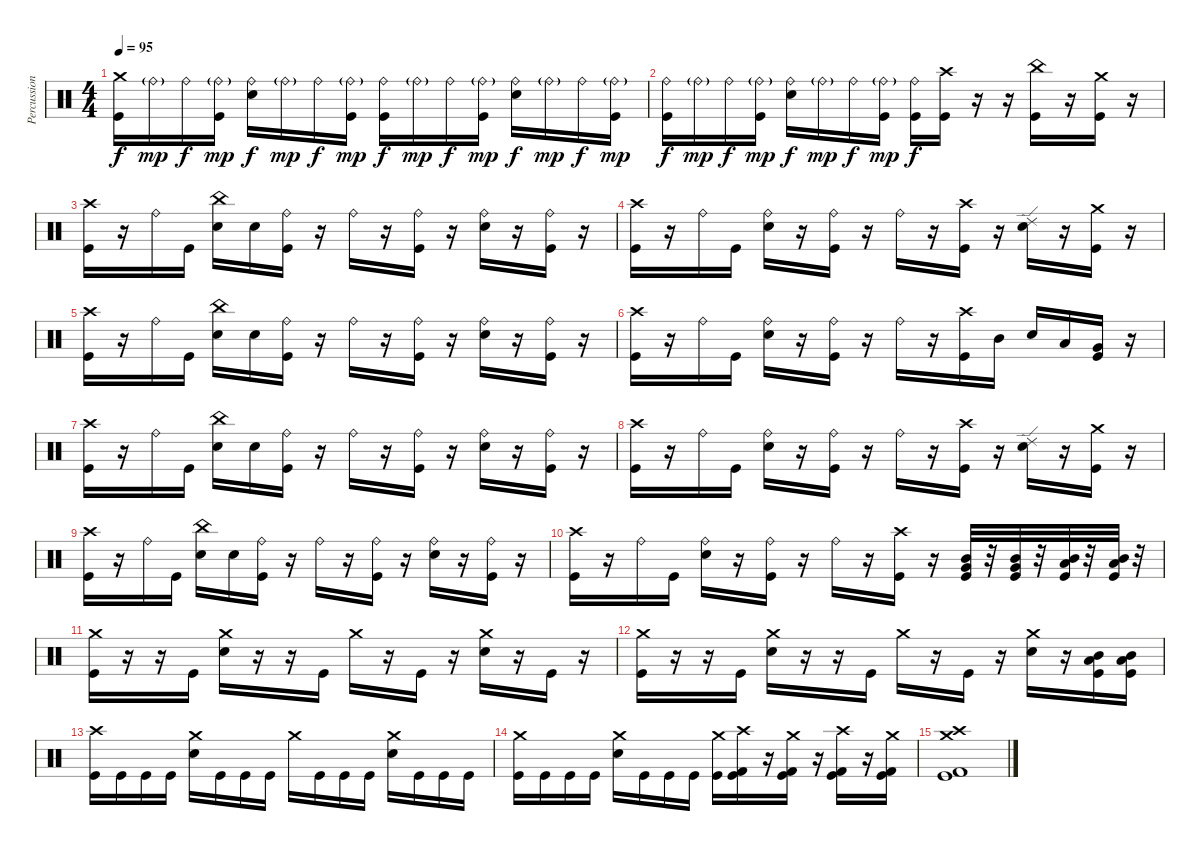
\track ("Percussion" "Percussion") {instrument percussion}
\staff {score}
\articulation defaults
\ts (4 4)
\tempo 95
\clef neutral
\ks c
("Crash medium (hit)" "Kick (hit)").16{dy f} "Ride (bell)"{g}.16{dy mp} "Ride (bell)".16{dy f} ("Ride (bell)"{g} "Kick (hit)").16{dy mp} ("Ride (bell)" "Snare (hit) 2").16{dy f} "Ride (bell)"{g}.16{dy mp} "Ride (bell)".16{dy f} ("Ride (bell)"{g} "Kick (hit)").16{dy mp} ("Ride (bell)" "Kick (hit)").16{dy f} "Ride (bell)"{g}.16{dy mp} "Ride (bell)".16{dy f} ("Ride (bell)"{g} "Kick (hit)").16{dy mp} ("Ride (bell)" "Snare (hit) 2").16{dy f} "Ride (bell)"{g}.16{dy mp} "Ride (bell)".16{dy f} ("Ride (bell)"{g} "Kick (hit)").16{dy mp} |
("Ride (bell)" "Kick (hit)").16{dy f} "Ride (bell)"{g}.16{dy mp} "Ride (bell)".16{dy f} ("Ride (bell)"{g} "Kick (hit)").16{dy mp} ("Ride (bell)" "Snare (hit) 2").16{dy f} "Ride (bell)"{g}.16{dy mp} "Ride (bell)".16{dy f} ("Ride (bell)"{g} "Kick (hit)").16{dy mp} ("Ride (bell)" "Kick (hit)").16{dy f} ("Crash high (hit)" "Kick (hit)").16 r.16 r.16 ("China (hit)" "Kick (hit)").16 r.16 ("Crash medium (hit)" "Kick (hit)").16 r.16 |
("Crash high (hit)" "Kick (hit)").16 r.16 "Ride (bell)".16 "Kick (hit)".16 ("China (hit)" "Snare (hit) 2").16 "Snare (hit) 2".16 ("Ride (bell)" "Kick (hit)").16 r.16 "Ride (bell)".16 r.16 ("Ride (bell)" "Kick (hit)").16 r.16 ("Ride (bell)" "Snare (hit) 2").16 r.16 ("Ride (bell)" "Kick (hit)").16 r.16 |
("Crash high (hit)" "Kick (hit)").16 r.16 "Ride (bell)".16 "Kick (hit)".16 ("Ride (bell)" "Snare (hit) 2").16 r.16 ("Ride (bell)" "Kick (hit)").16 r.16 "Ride (bell)".16 r.16 ("Crash high (hit)" "Kick (hit)").16 r.16 ("Ride (edge) 2" "Snare (hit) 2").16 r.16 ("Crash medium (hit)" "Kick (hit)").16 r.16 |
("Crash high (hit)" "Kick (hit)").16 r.16 "Ride (bell)".16 "Kick (hit)".16 ("China (hit)" "Snare (hit) 2").16 "Snare (hit) 2".16 ("Ride (bell)" "Kick (hit)").16 r.16 "Ride (bell)".16 r.16 ("Ride (bell)" "Kick (hit)").16 r.16 ("Ride (bell)" "Snare (hit) 2").16 r.16 ("Ride (bell)" "Kick (hit)").16 r.16 |
("Crash high (hit)" "Kick (hit)").16 r.16 "Ride (bell)".16 "Kick (hit)".16 ("Ride (bell)" "Snare (hit) 2").16 r.16 ("Ride (bell)" "Kick (hit)").16 r.16 "Ride (bell)".16 r.16 ("Crash high (hit)" "Kick (hit)").16 "Mid Tom (hit)".16 "Snare (hit) 2".16 "Low Tom (hit)".16 ("Very Low Tom (hit)" "Kick (hit)").16 r.16 |
("Crash high (hit)" "Kick (hit)").16 r.16 "Ride (bell)".16 "Kick (hit)".16 ("China (hit)" "Snare (hit) 2").16 "Snare (hit) 2".16 ("Ride (bell)" "Kick (hit)").16 r.16 "Ride (bell)".16 r.16 ("Ride (bell)" "Kick (hit)").16 r.16 ("Ride (bell)" "Snare (hit) 2").16 r.16 ("Ride (bell)" "Kick (hit)").16 r.16 |
("Crash high (hit)" "Kick (hit)").16 r.16 "Ride (bell)".16 "Kick (hit)".16 ("Ride (bell)" "Snare (hit) 2").16 r.16 ("Ride (bell)" "Kick (hit)").16 r.16 "Ride (bell)".16 r.16 ("Crash high (hit)" "Kick (hit)").16 r.16 ("Ride (edge) 2" "Snare (hit) 2").16 r.16 ("Crash medium (hit)" "Kick (hit)").16 r.16 |
("Crash high (hit)" "Kick (hit)").16 r.16 "Ride (bell)".16 "Kick (hit)".16 ("China (hit)" "Snare (hit) 2").16 "Snare (hit) 2".16 ("Ride (bell)" "Kick (hit)").16 r.16 "Ride (bell)".16 r.16 ("Ride (bell)" "Kick (hit)").16 r.16 ("Ride (bell)" "Snare (hit) 2").16 r.16 ("Ride (bell)" "Kick (hit)").16 r.16 |
("Crash high (hit)" "Kick (hit)").16 r.16 "Ride (bell)".16 "Kick (hit)".16 ("Ride (bell)" "Snare (hit) 2").16 r.16 ("Ride (bell)" "Kick (hit)").16 r.16 "Ride (bell)".16 r.16 ("Crash high (hit)" "Kick (hit)").16 r.16 ("Very Low Tom (hit)" "Mid Tom (hit)" "Kick (hit)").32 r.32 ("Very Low Tom (hit)" "Mid Tom (hit)" "Kick (hit)").32 r.32 ("Mid Tom (hit)" "Low Tom (hit)" "Kick (hit)").32 r.32 ("Mid Tom (hit)" "Low Tom (hit)" "Kick (hit)").32 r.32 |
("Crash medium (hit)" "Kick (hit)").16 r.16 r.16 "Kick (hit)".16 ("Crash medium (hit)" "Snare (hit) 2").16 r.16 r.16 "Kick (hit)".16 "Crash medium (hit)".16 r.16 "Kick (hit)".16 r.16 ("Crash medium (hit)" "Snare (hit) 2").16 r.16 "Kick (hit)".16 r.16 |
("Crash medium (hit)" "Kick (hit)").16 r.16 r.16 "Kick (hit)".16 ("Crash medium (hit)" "Snare (hit) 2").16 r.16 r.16 "Kick (hit)".16 "Crash medium (hit)".16 r.16 "Kick (hit)".16 r.16 ("Crash medium (hit)" "Snare (hit) 2").16 r.16 ("Mid Tom (hit)" "Low Tom (hit)" "Kick (hit)").16 ("Mid Tom (hit)" "Low Tom (hit)" "Kick (hit)").16 |
("Crash high (hit)" "Kick (hit)").16 "Kick (hit)".16 "Kick (hit)".16 "Kick (hit)".16 ("Crash medium (hit)" "Snare (hit) 2").16 "Kick (hit)".16 "Kick (hit)".16 "Kick (hit)".16 "Crash medium (hit)".16 "Kick (hit)".16 "Kick (hit)".16 "Kick (hit)".16 ("Crash medium (hit)" "Snare (hit) 2").16 "Kick (hit)".16 "Kick (hit)".16 "Kick (hit)".16 |
("Crash medium (hit)" "Kick (hit)").16 "Kick (hit)".16 "Kick (hit)".16 "Kick (hit)".16 ("Crash medium (hit)" "Snare (hit) 2").16 "Kick (hit)".16 "Kick (hit)".16 "Kick (hit)".16 ("Crash medium (hit)" "Kick (hit)").16 ("Crash high (hit)" "Kick (hit) 2" "Kick (hit)").16 r.16 ("Crash medium (hit)" "Kick (hit) 2" "Kick (hit)").16 r.16 ("Crash high (hit)" "Kick (hit) 2" "Kick (hit)").16 r.16 ("Crash medium (hit)" "Kick (hit) 2" "Kick (hit)").16 |
("Crash high (hit)" "Crash medium (hit)" "Kick (hit) 2" "Kick (hit)").1
